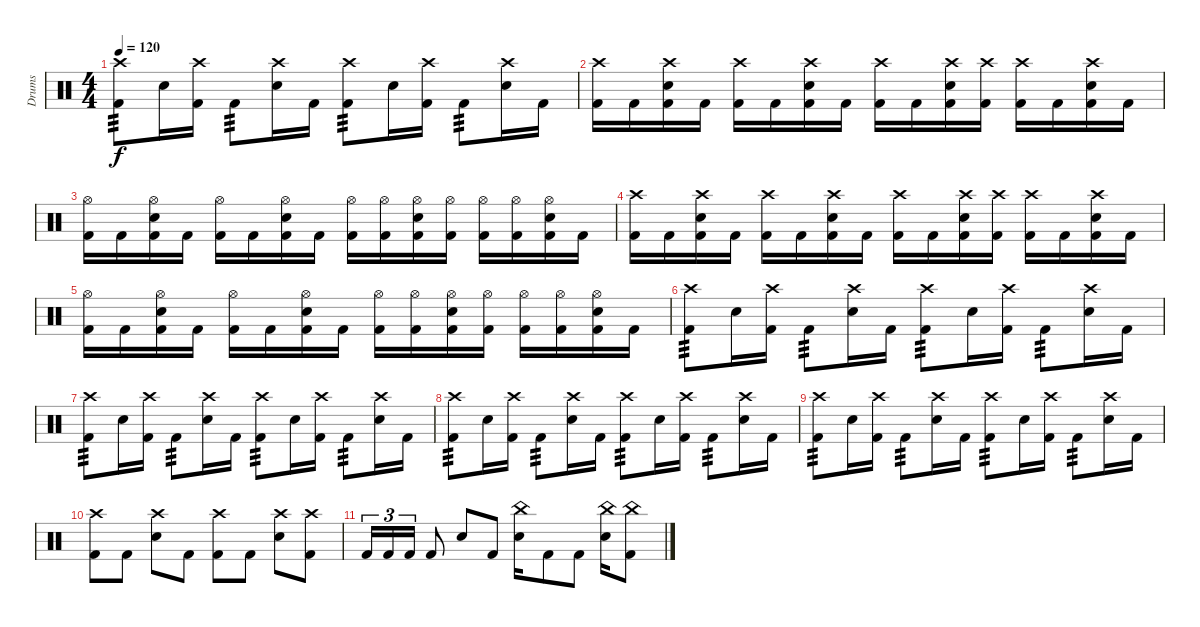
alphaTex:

\track ("Drums" "Drums") {instrument percussion}
\staff {score}
\articulation defaults
\ts (4 4)
\tempo 120
\clef neutral
\ks c
("Crash high (hit)" "Kick (hit) 2").8{tp 3 dy f} "Electric Snare (hit)".16 ("Crash high (hit)" "Kick (hit) 2").16 "Kick (hit) 2".8{tp 3} ("Crash high (hit)" "Electric Snare (hit)").16 "Kick (hit) 2".16 ("Crash high (hit)" "Kick (hit) 2").8{tp 3} "Electric Snare (hit)".16 ("Crash high (hit)" "Kick (hit) 2").16 "Kick (hit) 2".8{tp 3} ("Crash high (hit)" "Electric Snare (hit)").16 "Kick (hit) 2".16 |
("Crash high (hit)" "Kick (hit) 2").16 "Kick (hit) 2".16 ("Crash high (hit)" "Electric Snare (hit)" "Kick (hit) 2").16 "Kick (hit) 2".16 ("Crash high (hit)" "Kick (hit) 2").16 "Kick (hit) 2".16 ("Crash high (hit)" "Electric Snare (hit)" "Kick (hit) 2").16 "Kick (hit) 2".16 ("Crash high (hit)" "Kick (hit) 2").16 "Kick (hit) 2".16 ("Crash high (hit)" "Electric Snare (hit)" "Kick (hit) 2").16 ("Crash high (hit)" "Kick (hit) 2").16 ("Crash high (hit)" "Kick (hit) 2").16 "Kick (hit) 2".16 ("Crash high (hit)" "Electric Snare (hit)" "Kick (hit) 2").16 "Kick (hit) 2".16 |
("Hi-Hat (open)" "Kick (hit) 2").16 "Kick (hit) 2".16 ("Hi-Hat (open)" "Electric Snare (hit)" "Kick (hit) 2").16 "Kick (hit) 2".16 ("Hi-Hat (open)" "Kick (hit) 2").16 "Kick (hit) 2".16 ("Hi-Hat (open)" "Electric Snare (hit)" "Kick (hit) 2").16 "Kick (hit) 2".16 ("Hi-Hat (open)" "Kick (hit) 2").16 ("Hi-Hat (open)" "Kick (hit) 2").16 ("Hi-Hat (open)" "Electric Snare (hit)" "Kick (hit) 2").16 ("Hi-Hat (open)" "Kick (hit) 2").16 ("Hi-Hat (open)" "Kick (hit) 2").16 ("Hi-Hat (open)" "Kick (hit) 2").16 ("Hi-Hat (open)" "Electric Snare (hit)" "Kick (hit) 2").16 "Kick (hit) 2".16 |
("Crash high (hit)" "Kick (hit) 2").16 "Kick (hit) 2".16 ("Crash high (hit)" "Electric Snare (hit)" "Kick (hit) 2").16 "Kick (hit) 2".16 ("Crash high (hit)" "Kick (hit) 2").16 "Kick (hit) 2".16 ("Crash high (hit)" "Electric Snare (hit)" "Kick (hit) 2").16 "Kick (hit) 2".16 ("Crash high (hit)" "Kick (hit) 2").16 "Kick (hit) 2".16 ("Crash high (hit)" "Electric Snare (hit)" "Kick (hit) 2").16 ("Crash high (hit)" "Kick (hit) 2").16 ("Crash high (hit)" "Kick (hit) 2").16 "Kick (hit) 2".16 ("Crash high (hit)" "Electric Snare (hit)" "Kick (hit) 2").16 "Kick (hit) 2".16 |
("Hi-Hat (open)" "Kick (hit) 2").16 "Kick (hit) 2".16 ("Hi-Hat (open)" "Electric Snare (hit)" "Kick (hit) 2").16 "Kick (hit) 2".16 ("Hi-Hat (open)" "Kick (hit) 2").16 "Kick (hit) 2".16 ("Hi-Hat (open)" "Electric Snare (hit)" "Kick (hit) 2").16 "Kick (hit) 2".16 ("Hi-Hat (open)" "Kick (hit) 2").16 ("Hi-Hat (open)" "Kick (hit) 2").16 ("Hi-Hat (open)" "Electric Snare (hit)" "Kick (hit) 2").16 ("Hi-Hat (open)" "Kick (hit) 2").16 ("Hi-Hat (open)" "Kick (hit) 2").16 ("Hi-Hat (open)" "Kick (hit) 2").16 ("Hi-Hat (open)" "Electric Snare (hit)" "Kick (hit) 2").16 "Kick (hit) 2".16 |
("Crash high (hit)" "Kick (hit) 2").8{tp 3} "Electric Snare (hit)".16 ("Crash high (hit)" "Kick (hit) 2").16 "Kick (hit) 2".8{tp 3} ("Crash high (hit)" "Electric Snare (hit)").16 "Kick (hit) 2".16 ("Crash high (hit)" "Kick (hit) 2").8{tp 3} "Electric Snare (hit)".16 ("Crash high (hit)" "Kick (hit) 2").16 "Kick (hit) 2".8{tp 3} ("Crash high (hit)" "Electric Snare (hit)").16 "Kick (hit) 2".16 |
("Crash high (hit)" "Kick (hit) 2").8{tp 3} "Electric Snare (hit)".16 ("Crash high (hit)" "Kick (hit) 2").16 "Kick (hit) 2".8{tp 3} ("Crash high (hit)" "Electric Snare (hit)").16 "Kick (hit) 2".16 ("Crash high (hit)" "Kick (hit) 2").8{tp 3} "Electric Snare (hit)".16 ("Crash high (hit)" "Kick (hit) 2").16 "Kick (hit) 2".8{tp 3} ("Crash high (hit)" "Electric Snare (hit)").16 "Kick (hit) 2".16 |
("Crash high (hit)" "Kick (hit) 2").8{tp 3} "Electric Snare (hit)".16 ("Crash high (hit)" "Kick (hit) 2").16 "Kick (hit) 2".8{tp 3} ("Crash high (hit)" "Electric Snare (hit)").16 "Kick (hit) 2".16 ("Crash high (hit)" "Kick (hit) 2").8{tp 3} "Electric Snare (hit)".16 ("Crash high (hit)" "Kick (hit) 2").16 "Kick (hit) 2".8{tp 3} ("Crash high (hit)" "Electric Snare (hit)").16 "Kick (hit) 2".16 |
("Crash high (hit)" "Kick (hit) 2").8{tp 3} "Electric Snare (hit)".16 ("Crash high (hit)" "Kick (hit) 2").16 "Kick (hit) 2".8{tp 3} ("Crash high (hit)" "Electric Snare (hit)").16 "Kick (hit) 2".16 ("Crash high (hit)" "Kick (hit) 2").8{tp 3} "Electric Snare (hit)".16 ("Crash high (hit)" "Kick (hit) 2").16 "Kick (hit) 2".8{tp 3} ("Crash high (hit)" "Electric Snare (hit)").16 "Kick (hit) 2".16 |
("Crash high (hit)" "Kick (hit) 2").8 "Kick (hit) 2".8 ("Crash high (hit)" "Electric Snare (hit)").8 "Kick (hit) 2".8 ("Crash high (hit)" "Kick (hit) 2").8 "Kick (hit) 2".8 ("Crash high (hit)" "Electric Snare (hit)").8 ("Crash high (hit)" "Kick (hit) 2").8 |
"Kick (hit) 2".16{tu (3 2)} "Kick (hit) 2".16{tu (3 2)} "Kick (hit) 2".16{tu (3 2)} "Kick (hit) 2".8 "Electric Snare (hit)".8 "Kick (hit) 2".8 ("China (hit)" "Electric Snare (hit)").16 "Kick (hit) 2".8 "Kick (hit) 2".8 ("China (hit)" "Electric Snare (hit)").16 ("China (hit)" "Kick (hit) 2").8
